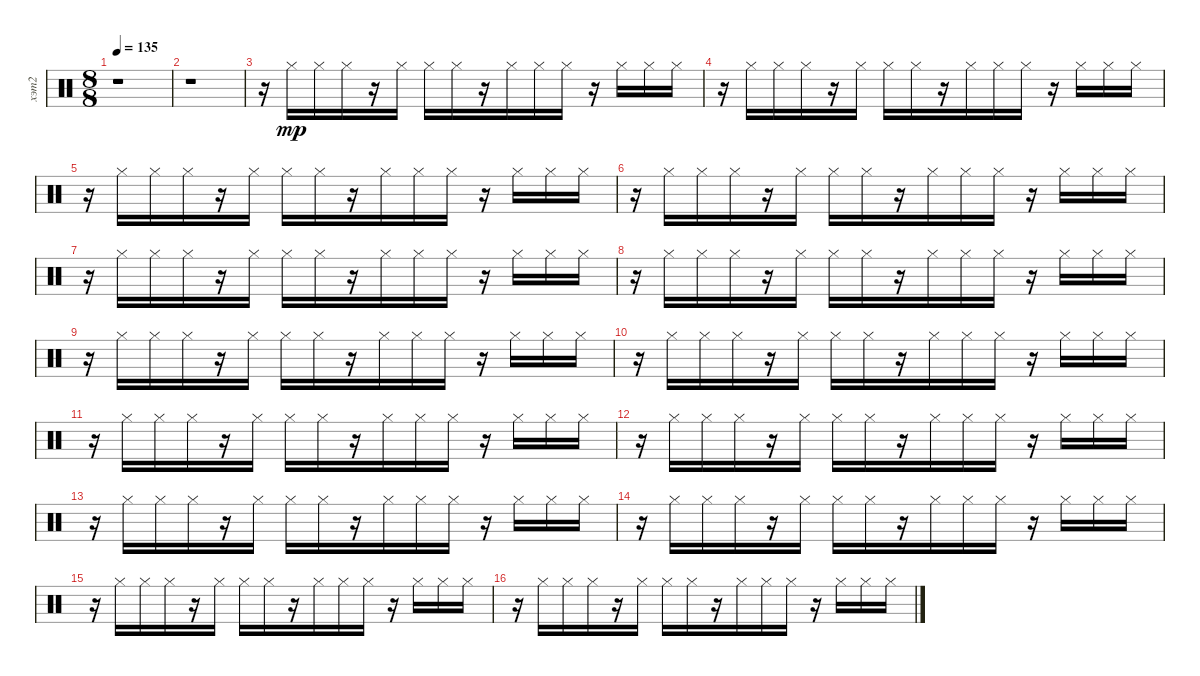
\track ("хэт2" "хэт2") {instrument percussion}
\staff {score}
\articulation defaults
\ts (8 8)
\tempo 135
\clef neutral
\ks c
r.1{dy mp} |
r.1 |
r.16 "Hi-Hat (closed)".16 "Hi-Hat (closed)".16 "Hi-Hat (closed)".16 r.16 "Hi-Hat (closed)".16 "Hi-Hat (closed)".16 "Hi-Hat (closed)".16 r.16 "Hi-Hat (closed)".16 "Hi-Hat (closed)".16 "Hi-Hat (closed)".16 r.16 "Hi-Hat (closed)".16 "Hi-Hat (closed)".16 "Hi-Hat (closed)".16 |
r.16 "Hi-Hat (closed)".16 "Hi-Hat (closed)".16 "Hi-Hat (closed)".16 r.16 "Hi-Hat (closed)".16 "Hi-Hat (closed)".16 "Hi-Hat (closed)".16 r.16 "Hi-Hat (closed)".16 "Hi-Hat (closed)".16 "Hi-Hat (closed)".16 r.16 "Hi-Hat (closed)".16 "Hi-Hat (closed)".16 "Hi-Hat (closed)".16 |
r.16 "Hi-Hat (closed)".16 "Hi-Hat (closed)".16 "Hi-Hat (closed)".16 r.16 "Hi-Hat (closed)".16 "Hi-Hat (closed)".16 "Hi-Hat (closed)".16 r.16 "Hi-Hat (closed)".16 "Hi-Hat (closed)".16 "Hi-Hat (closed)".16 r.16 "Hi-Hat (closed)".16 "Hi-Hat (closed)".16 "Hi-Hat (closed)".16 |
r.16 "Hi-Hat (closed)".16 "Hi-Hat (closed)".16 "Hi-Hat (closed)".16 r.16 "Hi-Hat (closed)".16 "Hi-Hat (closed)".16 "Hi-Hat (closed)".16 r.16 "Hi-Hat (closed)".16 "Hi-Hat (closed)".16 "Hi-Hat (closed)".16 r.16 "Hi-Hat (closed)".16 "Hi-Hat (closed)".16 "Hi-Hat (closed)".16 |
r.16 "Hi-Hat (closed)".16 "Hi-Hat (closed)".16 "Hi-Hat (closed)".16 r.16 "Hi-Hat (closed)".16 "Hi-Hat (closed)".16 "Hi-Hat (closed)".16 r.16 "Hi-Hat (closed)".16 "Hi-Hat (closed)".16 "Hi-Hat (closed)".16 r.16 "Hi-Hat (closed)".16 "Hi-Hat (closed)".16 "Hi-Hat (closed)".16 |
r.16 "Hi-Hat (closed)".16 "Hi-Hat (closed)".16 "Hi-Hat (closed)".16 r.16 "Hi-Hat (closed)".16 "Hi-Hat (closed)".16 "Hi-Hat (closed)".16 r.16 "Hi-Hat (closed)".16 "Hi-Hat (closed)".16 "Hi-Hat (closed)".16 r.16 "Hi-Hat (closed)".16 "Hi-Hat (closed)".16 "Hi-Hat (closed)".16 |
r.16 "Hi-Hat (closed)".16 "Hi-Hat (closed)".16 "Hi-Hat (closed)".16 r.16 "Hi-Hat (closed)".16 "Hi-Hat (closed)".16 "Hi-Hat (closed)".16 r.16 "Hi-Hat (closed)".16 "Hi-Hat (closed)".16 "Hi-Hat (closed)".16 r.16 "Hi-Hat (closed)".16 "Hi-Hat (closed)".16 "Hi-Hat (closed)".16 |
r.16 "Hi-Hat (closed)".16 "Hi-Hat (closed)".16 "Hi-Hat (closed)".16 r.16 "Hi-Hat (closed)".16 "Hi-Hat (closed)".16 "Hi-Hat (closed)".16 r.16 "Hi-Hat (closed)".16 "Hi-Hat (closed)".16 "Hi-Hat (closed)".16 r.16 "Hi-Hat (closed)".16 "Hi-Hat (closed)".16 "Hi-Hat (closed)".16 |
r.16 "Hi-Hat (closed)".16 "Hi-Hat (closed)".16 "Hi-Hat (closed)".16 r.16 "Hi-Hat (closed)".16 "Hi-Hat (closed)".16 "Hi-Hat (closed)".16 r.16 "Hi-Hat (closed)".16 "Hi-Hat (closed)".16 "Hi-Hat (closed)".16 r.16 "Hi-Hat (closed)".16 "Hi-Hat (closed)".16 "Hi-Hat (closed)".16 |
r.16 "Hi-Hat (closed)".16 "Hi-Hat (closed)".16 "Hi-Hat (closed)".16 r.16 "Hi-Hat (closed)".16 "Hi-Hat (closed)".16 "Hi-Hat (closed)".16 r.16 "Hi-Hat (closed)".16 "Hi-Hat (closed)".16 "Hi-Hat (closed)".16 r.16 "Hi-Hat (closed)".16 "Hi-Hat (closed)".16 "Hi-Hat (closed)".16 |
r.16 "Hi-Hat (closed)".16 "Hi-Hat (closed)".16 "Hi-Hat (closed)".16 r.16 "Hi-Hat (closed)".16 "Hi-Hat (closed)".16 "Hi-Hat (closed)".16 r.16 "Hi-Hat (closed)".16 "Hi-Hat (closed)".16 "Hi-Hat (closed)".16 r.16 "Hi-Hat (closed)".16 "Hi-Hat (closed)".16 "Hi-Hat (closed)".16 |
r.16 "Hi-Hat (closed)".16 "Hi-Hat (closed)".16 "Hi-Hat (closed)".16 r.16 "Hi-Hat (closed)".16 "Hi-Hat (closed)".16 "Hi-Hat (closed)".16 r.16 "Hi-Hat (closed)".16 "Hi-Hat (closed)".16 "Hi-Hat (closed)".16 r.16 "Hi-Hat (closed)".16 "Hi-Hat (closed)".16 "Hi-Hat (closed)".16 |
r.16 "Hi-Hat (closed)".16 "Hi-Hat (closed)".16 "Hi-Hat (closed)".16 r.16 "Hi-Hat (closed)".16 "Hi-Hat (closed)".16 "Hi-Hat (closed)".16 r.16 "Hi-Hat (closed)".16 "Hi-Hat (closed)".16 "Hi-Hat (closed)".16 r.16 "Hi-Hat (closed)".16 "Hi-Hat (closed)".16 "Hi-Hat (closed)".16 |
r.16 "Hi-Hat (closed)".16 "Hi-Hat (closed)".16 "Hi-Hat (closed)".16 r.16 "Hi-Hat (closed)".16 "Hi-Hat (closed)".16 "Hi-Hat (closed)".16 r.16 "Hi-Hat (closed)".16 "Hi-Hat (closed)".16 "Hi-Hat (closed)".16 r.16 "Hi-Hat (closed)".16 "Hi-Hat (closed)".16 "Hi-Hat (closed)".16
